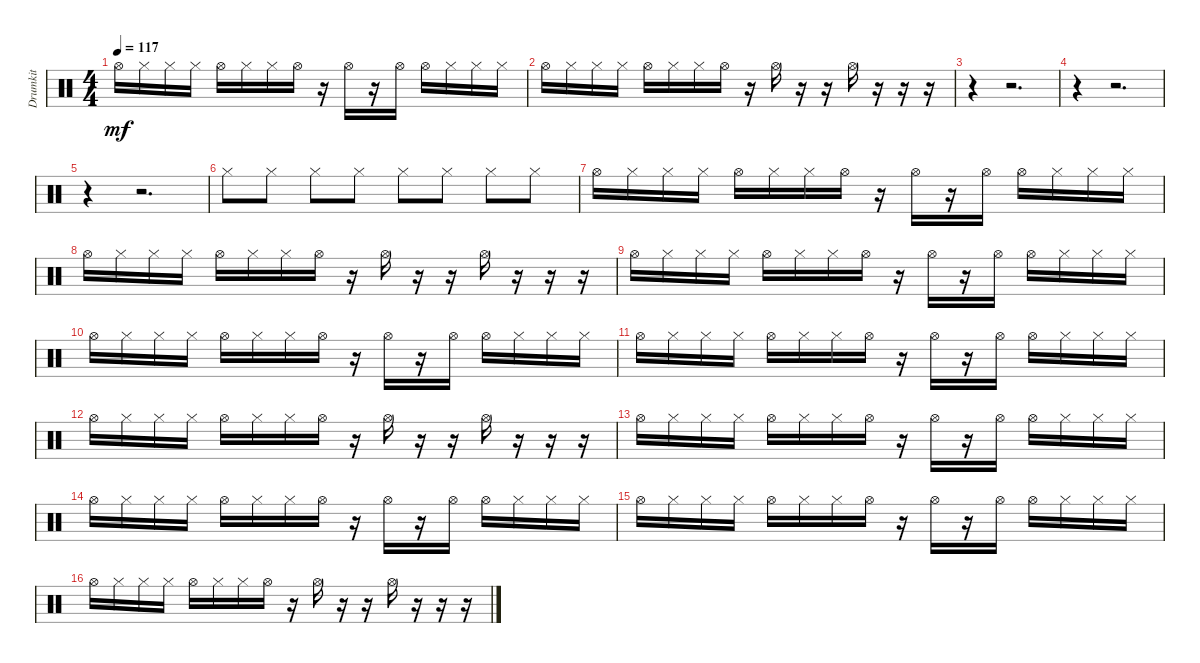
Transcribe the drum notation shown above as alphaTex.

\track ("Drumkit" "Drumkit") {instrument percussion}
\staff {score}
\articulation defaults
\ts (4 4)
\tempo 117
\clef neutral
\ks c "Hi-Hat (open)".16{dy mf} "Hi-Hat (closed)".16 "Hi-Hat (closed)".16 "Hi-Hat (closed)".16 "Hi-Hat (open)".16 "Hi-Hat (closed)".16 "Hi-Hat (closed)".16 "Hi-Hat (open)".16
r.16 "Hi-Hat (open)".16 r.16 "Hi-Hat (open)".16 "Hi-Hat (open)".16 "Hi-Hat (closed)".16 "Hi-Hat (closed)".16 "Hi-Hat (closed)".16 |
"Hi-Hat (open)".16 "Hi-Hat (closed)".16 "Hi-Hat (closed)".16 "Hi-Hat (closed)".16 "Hi-Hat (open)".16 "Hi-Hat (closed)".16 "Hi-Hat (closed)".16 "Hi-Hat (open)".16 r.16 "Hi-Hat (open)".16 r.16 r.16 "Hi-Hat (open)".16 r.16 r.16 r.16 |
r.4 r.2{d} |
r.4 r.2{d} |
r.4 r.2{d} |
"Hi-Hat (closed)".8 "Hi-Hat (closed)".8 "Hi-Hat (closed)".8 "Hi-Hat (closed)".8 "Hi-Hat (closed)".8 "Hi-Hat (closed)".8 "Hi-Hat (closed)".8 "Hi-Hat (closed)".8 |
"Hi-Hat (open)".16 "Hi-Hat (closed)".16 "Hi-Hat (closed)".16 "Hi-Hat (closed)".16 "Hi-Hat (open)".16 "Hi-Hat (closed)".16 "Hi-Hat (closed)".16 "Hi-Hat (open)".16 r.16 "Hi-Hat (open)".16 r.16 "Hi-Hat (open)".16 "Hi-Hat (open)".16 "Hi-Hat (closed)".16 "Hi-Hat (closed)".16 "Hi-Hat (closed)".16 |
"Hi-Hat (open)".16 "Hi-Hat (closed)".16 "Hi-Hat (closed)".16 "Hi-Hat (closed)".16 "Hi-Hat (open)".16 "Hi-Hat (closed)".16 "Hi-Hat (closed)".16 "Hi-Hat (open)".16 r.16 "Hi-Hat (open)".16 r.16 r.16 "Hi-Hat (open)".16 r.16 r.16 r.16 |
"Hi-Hat (open)".16 "Hi-Hat (closed)".16 "Hi-Hat (closed)".16 "Hi-Hat (closed)".16 "Hi-Hat (open)".16 "Hi-Hat (closed)".16 "Hi-Hat (closed)".16 "Hi-Hat (open)".16 r.16 "Hi-Hat (open)".16 r.16 "Hi-Hat (open)".16 "Hi-Hat (open)".16 "Hi-Hat (closed)".16 "Hi-Hat (closed)".16 "Hi-Hat (closed)".16 |
"Hi-Hat (open)".16 "Hi-Hat (closed)".16 "Hi-Hat (closed)".16 "Hi-Hat (closed)".16 "Hi-Hat (open)".16 "Hi-Hat (closed)".16 "Hi-Hat (closed)".16 "Hi-Hat (open)".16 r.16 "Hi-Hat (open)".16 r.16 "Hi-Hat (open)".16 "Hi-Hat (open)".16 "Hi-Hat (closed)".16 "Hi-Hat (closed)".16 "Hi-Hat (closed)".16 |
"Hi-Hat (open)".16 "Hi-Hat (closed)".16 "Hi-Hat (closed)".16 "Hi-Hat (closed)".16 "Hi-Hat (open)".16 "Hi-Hat (closed)".16 "Hi-Hat (closed)".16 "Hi-Hat (open)".16 r.16 "Hi-Hat (open)".16 r.16 "Hi-Hat (open)".16 "Hi-Hat (open)".16 "Hi-Hat (closed)".16 "Hi-Hat (closed)".16 "Hi-Hat (closed)".16 |
"Hi-Hat (open)".16 "Hi-Hat (closed)".16 "Hi-Hat (closed)".16 "Hi-Hat (closed)".16 "Hi-Hat (open)".16 "Hi-Hat (closed)".16 "Hi-Hat (closed)".16 "Hi-Hat (open)".16 r.16 "Hi-Hat (open)".16 r.16 r.16 "Hi-Hat (open)".16 r.16 r.16 r.16 |
"Hi-Hat (open)".16 "Hi-Hat (closed)".16 "Hi-Hat (closed)".16 "Hi-Hat (closed)".16 "Hi-Hat (open)".16 "Hi-Hat (closed)".16 "Hi-Hat (closed)".16 "Hi-Hat (open)".16 r.16 "Hi-Hat (open)".16 r.16 "Hi-Hat (open)".16 "Hi-Hat (open)".16 "Hi-Hat (closed)".16 "Hi-Hat (closed)".16 "Hi-Hat (closed)".16 |
"Hi-Hat (open)".16 "Hi-Hat (closed)".16 "Hi-Hat (closed)".16 "Hi-Hat (closed)".16 "Hi-Hat (open)".16 "Hi-Hat (closed)".16 "Hi-Hat (closed)".16 "Hi-Hat (open)".16 r.16 "Hi-Hat (open)".16 r.16 "Hi-Hat (open)".16 "Hi-Hat (open)".16 "Hi-Hat (closed)".16 "Hi-Hat (closed)".16 "Hi-Hat (closed)".16 |
"Hi-Hat (open)".16 "Hi-Hat (closed)".16 "Hi-Hat (closed)".16 "Hi-Hat (closed)".16 "Hi-Hat (open)".16 "Hi-Hat (closed)".16 "Hi-Hat (closed)".16 "Hi-Hat (open)".16 r.16 "Hi-Hat (open)".16 r.16 "Hi-Hat (open)".16 "Hi-Hat (open)".16 "Hi-Hat (closed)".16 "Hi-Hat (closed)".16 "Hi-Hat (closed)".16 |
"Hi-Hat (open)".16 "Hi-Hat (closed)".16 "Hi-Hat (closed)".16 "Hi-Hat (closed)".16 "Hi-Hat (open)".16 "Hi-Hat (closed)".16 "Hi-Hat (closed)".16 "Hi-Hat (open)".16 r.16 "Hi-Hat (open)".16 r.16 r.16 "Hi-Hat (open)".16 r.16 r.16 r.16
